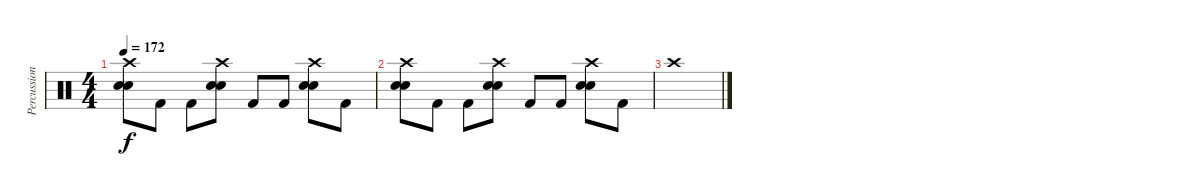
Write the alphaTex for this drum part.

\track ("Percussion" "Percussion") {instrument percussion}
\staff {score}
\articulation defaults
\ts (4 4)
\tempo 172
\clef neutral
\ks c
("Crash high (hit)" "Snare (hit) 2" "Electric Snare (hit)").8{dy f} "Kick (hit) 2".8 "Kick (hit) 2".8 ("Crash high (hit)" "Snare (hit) 2" "Electric Snare (hit)").8 "Kick (hit) 2".8 "Kick (hit) 2".8 ("Crash high (hit)" "Snare (hit) 2" "Electric Snare (hit)").8 "Kick (hit) 2".8 |
("Crash high (hit)" "Snare (hit) 2" "Electric Snare (hit)").8 "Kick (hit) 2".8 "Kick (hit) 2".8 ("Crash high (hit)" "Snare (hit) 2" "Electric Snare (hit)").8 "Kick (hit) 2".8 "Kick (hit) 2".8 ("Crash high (hit)" "Snare (hit) 2" "Electric Snare (hit)").8 "Kick (hit) 2".8 |
"Crash high (hit)".1
